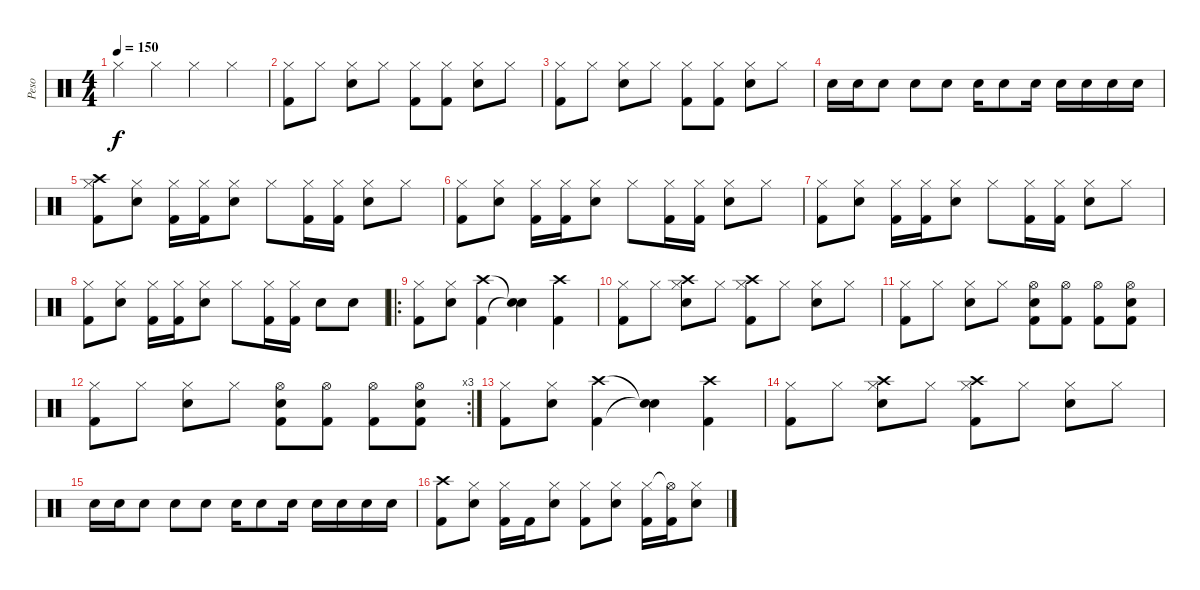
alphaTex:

\track ("Peso" "Peso") {instrument percussion}
\staff {score}
\articulation defaults
\ts (4 4)
\tempo 150
\clef neutral
\ks c "Hi-Hat (closed)".4{dy f} "Hi-Hat (closed)".4 "Hi-Hat (closed)".4 "Hi-Hat (closed)".4
|
("Hi-Hat (closed)" "Kick (hit) 2").8 "Hi-Hat (closed)".8 ("Hi-Hat (closed)" "Snare (hit) 2").8 "Hi-Hat (closed)".8 ("Hi-Hat (closed)" "Kick (hit) 2").8 ("Hi-Hat (closed)" "Kick (hit) 2").8 ("Hi-Hat (closed)" "Snare (hit) 2").8 "Hi-Hat (closed)".8 |
("Hi-Hat (closed)" "Kick (hit) 2").8 "Hi-Hat (closed)".8 ("Hi-Hat (closed)" "Snare (hit) 2").8 "Hi-Hat (closed)".8 ("Hi-Hat (closed)" "Kick (hit) 2").8 ("Hi-Hat (closed)" "Kick (hit) 2").8 ("Hi-Hat (closed)" "Snare (hit) 2").8 "Hi-Hat (closed)".8 |
"Snare (hit) 2".16 "Snare (hit) 2".16 "Snare (hit) 2".8 "Snare (hit) 2".8 "Snare (hit) 2".8 "Snare (hit) 2".16 "Snare (hit) 2".8 "Snare (hit) 2".16 "Snare (hit) 2".16 "Snare (hit) 2".16 "Snare (hit) 2".16 "Snare (hit) 2".16 |
("Crash high (hit)" "Hi-Hat (closed)" "Kick (hit) 2").8 ("Hi-Hat (closed)" "Snare (hit) 2").8 ("Hi-Hat (closed)" "Kick (hit) 2").16 ("Hi-Hat (closed)" "Kick (hit) 2").16 ("Hi-Hat (closed)" "Snare (hit) 2").8 "Hi-Hat (closed)".8 ("Hi-Hat (closed)" "Kick (hit) 2").16 ("Hi-Hat (closed)" "Kick (hit) 2").16 ("Hi-Hat (closed)" "Snare (hit) 2").8 "Hi-Hat (closed)".8 |
("Hi-Hat (closed)" "Kick (hit) 2").8 ("Hi-Hat (closed)" "Snare (hit) 2").8 ("Hi-Hat (closed)" "Kick (hit) 2").16 ("Hi-Hat (closed)" "Kick (hit) 2").16 ("Hi-Hat (closed)" "Snare (hit) 2").8 "Hi-Hat (closed)".8 ("Hi-Hat (closed)" "Kick (hit) 2").16 ("Hi-Hat (closed)" "Kick (hit) 2").16 ("Hi-Hat (closed)" "Snare (hit) 2").8 "Hi-Hat (closed)".8 |
("Hi-Hat (closed)" "Kick (hit) 2").8 ("Hi-Hat (closed)" "Snare (hit) 2").8 ("Hi-Hat (closed)" "Kick (hit) 2").16 ("Hi-Hat (closed)" "Kick (hit) 2").16 ("Hi-Hat (closed)" "Snare (hit) 2").8 "Hi-Hat (closed)".8 ("Hi-Hat (closed)" "Kick (hit) 2").16 ("Hi-Hat (closed)" "Kick (hit) 2").16 ("Hi-Hat (closed)" "Snare (hit) 2").8 "Hi-Hat (closed)".8 |
("Hi-Hat (closed)" "Kick (hit) 2").8 ("Hi-Hat (closed)" "Snare (hit) 2").8 ("Hi-Hat (closed)" "Kick (hit) 2").16 ("Hi-Hat (closed)" "Kick (hit) 2").16 ("Hi-Hat (closed)" "Snare (hit) 2").8 "Hi-Hat (closed)".8 ("Hi-Hat (closed)" "Kick (hit) 2").16 ("Hi-Hat (closed)" "Kick (hit) 2").16 "Snare (hit) 2".8 "Snare (hit) 2".8 |
\ro
("Hi-Hat (closed)" "Kick (hit) 2").8 ("Hi-Hat (closed)" "Snare (hit) 2").8 ("Crash high (hit)" "Kick (hit) 2").4 ("Snare (hit)"{t} "Snare (hit)"{t}).4 ("Crash high (hit)" "Kick (hit) 2").4 |
("Hi-Hat (closed)" "Kick (hit) 2").8 "Hi-Hat (closed)".8 ("Crash high (hit)" "Hi-Hat (closed)" "Snare (hit) 2").8 "Hi-Hat (closed)".8 ("Crash high (hit)" "Hi-Hat (closed)" "Kick (hit) 2").8 "Hi-Hat (closed)".8 ("Hi-Hat (closed)" "Snare (hit) 2").8 "Hi-Hat (closed)".8 |
("Hi-Hat (closed)" "Kick (hit) 2").8 "Hi-Hat (closed)".8 ("Hi-Hat (closed)" "Snare (hit) 2").8 "Hi-Hat (closed)".8 ("Hi-Hat (open)" "Snare (hit) 2" "Kick (hit) 2").8 ("Hi-Hat (open)" "Kick (hit) 2").8 ("Hi-Hat (open)" "Kick (hit) 2").8 ("Hi-Hat (open)" "Snare (hit) 2" "Kick (hit) 2").8 |
\rc 3
("Hi-Hat (closed)" "Kick (hit) 2").8 "Hi-Hat (closed)".8 ("Hi-Hat (closed)" "Snare (hit) 2").8 "Hi-Hat (closed)".8 ("Hi-Hat (open)" "Snare (hit) 2" "Kick (hit) 2").8 ("Hi-Hat (open)" "Kick (hit) 2").8 ("Hi-Hat (open)" "Kick (hit) 2").8 ("Hi-Hat (open)" "Snare (hit) 2" "Kick (hit) 2").8 |
("Hi-Hat (closed)" "Kick (hit) 2").8 ("Hi-Hat (closed)" "Snare (hit) 2").8 ("Crash high (hit)" "Kick (hit) 2").4 ("Snare (hit)"{t} "Snare (hit)"{t}).4 ("Crash high (hit)" "Kick (hit) 2").4 |
("Hi-Hat (closed)" "Kick (hit) 2").8 "Hi-Hat (closed)".8 ("Crash high (hit)" "Hi-Hat (closed)" "Snare (hit) 2").8 "Hi-Hat (closed)".8 ("Crash high (hit)" "Hi-Hat (closed)" "Kick (hit) 2").8 "Hi-Hat (closed)".8 ("Hi-Hat (closed)" "Snare (hit) 2").8 "Hi-Hat (closed)".8 |
"Snare (hit) 2".16 "Snare (hit) 2".16 "Snare (hit) 2".8 "Snare (hit) 2".8 "Snare (hit) 2".8 "Snare (hit) 2".16 "Snare (hit) 2".8 "Snare (hit) 2".16 "Snare (hit) 2".16 "Snare (hit) 2".16 "Snare (hit) 2".16 "Snare (hit) 2".16 |
("Crash high (hit)" "Kick (hit) 2").8 ("Hi-Hat (closed)" "Snare (hit) 2").8 ("Hi-Hat (closed)" "Kick (hit) 2").16 "Kick (hit) 2".16 ("Hi-Hat (closed)" "Snare (hit) 2").8 ("Hi-Hat (closed)" "Kick (hit) 2").8 ("Hi-Hat (closed)" "Snare (hit) 2").8 ("Hi-Hat (closed)" "Kick (hit) 2").16 ("Hi-Hat (open)"{t} "Kick (hit) 2").16 ("Hi-Hat (closed)" "Snare (hit) 2").8
